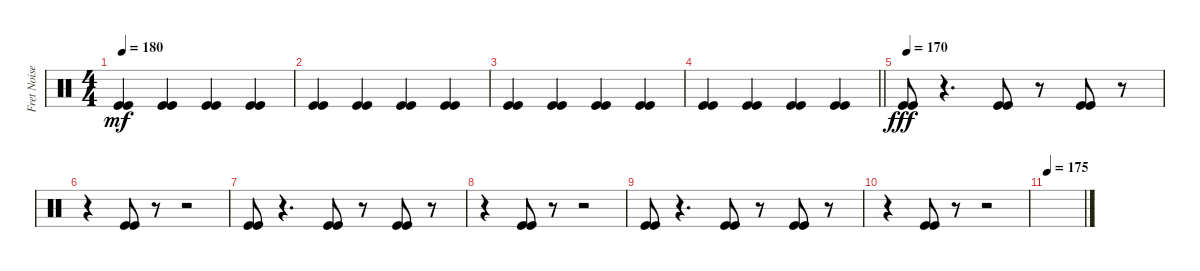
\track ("Fret Noise / Percussion(corpus)" "Fret Noise") {instrument percussion}
\staff {score}
\articulation defaults
\ts (4 4)
\tempo 180
\clef neutral
\ks c
("Kick (hit)" "Kick (hit)").4{dy mf} ("Kick (hit)" "Kick (hit)").4 ("Kick (hit)" "Kick (hit)").4 ("Kick (hit)" "Kick (hit)").4 |
("Kick (hit)" "Kick (hit)").4 ("Kick (hit)" "Kick (hit)").4 ("Kick (hit)" "Kick (hit)").4 ("Kick (hit)" "Kick (hit)").4 |
("Kick (hit)" "Kick (hit)").4 ("Kick (hit)" "Kick (hit)").4 ("Kick (hit)" "Kick (hit)").4 ("Kick (hit)" "Kick (hit)").4 |
\barLineRight lightlight
("Kick (hit)" "Kick (hit)").4 ("Kick (hit)" "Kick (hit)").4 ("Kick (hit)" "Kick (hit)").4 ("Kick (hit)" "Kick (hit)").4 |
\tempo 170
("Kick (hit)" "Kick (hit)").8{dy fff} r.4{d} ("Kick (hit)" "Kick (hit)").8 r.8 ("Kick (hit)" "Kick (hit)").8 r.8 |
r.4 ("Kick (hit)" "Kick (hit)").8 r.8 r.2 |
("Kick (hit)" "Kick (hit)").8 r.4{d} ("Kick (hit)" "Kick (hit)").8 r.8 ("Kick (hit)" "Kick (hit)").8 r.8 |
r.4 ("Kick (hit)" "Kick (hit)").8 r.8 r.2 |
("Kick (hit)" "Kick (hit)").8 r.4{d} ("Kick (hit)" "Kick (hit)").8 r.8 ("Kick (hit)" "Kick (hit)").8 r.8 |
r.4 ("Kick (hit)" "Kick (hit)").8 r.8 r.2 |
\tempo 175
